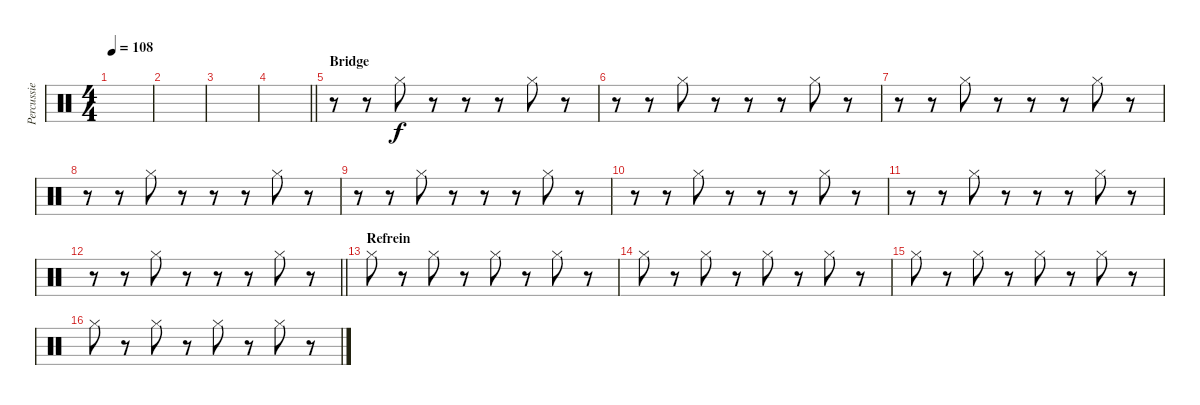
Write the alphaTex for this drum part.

\track ("Percussie" "Percussie") {instrument percussion}
\staff {score}
\articulation defaults
\ts (4 4)
\tempo 108
\clef neutral
\ks c
|
|
|
\barLineRight lightlight
|
\section ("" "Bridge")
r.8 r.8 "Hi-Hat (closed)".8 r.8 r.8 r.8 "Hi-Hat (closed)".8 r.8 |
r.8 r.8 "Hi-Hat (closed)".8 r.8 r.8 r.8 "Hi-Hat (closed)".8 r.8 |
r.8 r.8 "Hi-Hat (closed)".8 r.8 r.8 r.8 "Hi-Hat (closed)".8 r.8 |
r.8 r.8 "Hi-Hat (closed)".8 r.8 r.8 r.8 "Hi-Hat (closed)".8 r.8 |
r.8 r.8 "Hi-Hat (closed)".8 r.8 r.8 r.8 "Hi-Hat (closed)".8 r.8 |
r.8 r.8 "Hi-Hat (closed)".8 r.8 r.8 r.8 "Hi-Hat (closed)".8 r.8 |
r.8 r.8 "Hi-Hat (closed)".8 r.8 r.8 r.8 "Hi-Hat (closed)".8 r.8 |
\barLineRight lightlight
r.8 r.8 "Hi-Hat (closed)".8 r.8 r.8 r.8 "Hi-Hat (closed)".8 r.8 |
\section ("" "Refrein")
"Hi-Hat (closed)".8 r.8 "Hi-Hat (closed)".8 r.8 "Hi-Hat (closed)".8 r.8 "Hi-Hat (closed)".8 r.8 |
"Hi-Hat (closed)".8 r.8 "Hi-Hat (closed)".8 r.8 "Hi-Hat (closed)".8 r.8 "Hi-Hat (closed)".8 r.8 |
"Hi-Hat (closed)".8 r.8 "Hi-Hat (closed)".8 r.8 "Hi-Hat (closed)".8 r.8 "Hi-Hat (closed)".8 r.8 |
"Hi-Hat (closed)".8 r.8 "Hi-Hat (closed)".8 r.8 "Hi-Hat (closed)".8 r.8 "Hi-Hat (closed)".8 r.8
